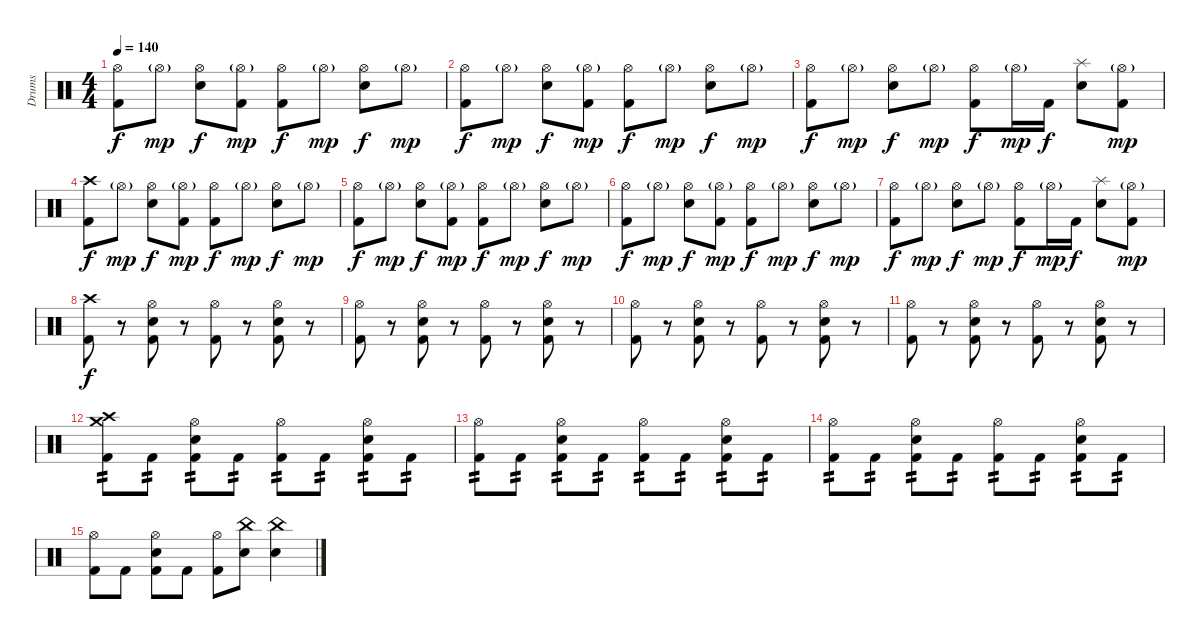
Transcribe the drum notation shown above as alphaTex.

\track ("Drums" "Drums") {instrument percussion}
\staff {score}
\articulation defaults
\ts (4 4)
\tempo 140
\clef neutral
\ks c
("Hi-Hat (open)" "Kick (hit) 2").8{dy f} "Hi-Hat (open)"{g}.8{dy mp} ("Hi-Hat (open)" "Electric Snare (hit)").8{dy f} ("Hi-Hat (open)"{g} "Kick (hit) 2").8{dy mp} ("Hi-Hat (open)" "Kick (hit) 2").8{dy f} "Hi-Hat (open)"{g}.8{dy mp} ("Hi-Hat (open)" "Electric Snare (hit)").8{dy f} "Hi-Hat (open)"{g}.8{dy mp} |
("Hi-Hat (open)" "Kick (hit) 2").8{dy f} "Hi-Hat (open)"{g}.8{dy mp} ("Hi-Hat (open)" "Electric Snare (hit)").8{dy f} ("Hi-Hat (open)"{g} "Kick (hit) 2").8{dy mp} ("Hi-Hat (open)" "Kick (hit) 2").8{dy f} "Hi-Hat (open)"{g}.8{dy mp} ("Hi-Hat (open)" "Electric Snare (hit)").8{dy f} "Hi-Hat (open)"{g}.8{dy mp} |
("Hi-Hat (open)" "Kick (hit) 2").8{dy f} "Hi-Hat (open)"{g}.8{dy mp} ("Hi-Hat (open)" "Electric Snare (hit)").8{dy f} "Hi-Hat (open)"{g}.8{dy mp} ("Hi-Hat (open)" "Kick (hit) 2").8{dy f} "Hi-Hat (open)"{g}.16{dy mp} "Kick (hit) 2".16{dy f} ("Splash (hit)" "Electric Snare (hit)").8 ("Hi-Hat (open)"{g} "Kick (hit) 2").8{dy mp} |
("Crash high (hit)" "Kick (hit) 2").8{dy f} "Hi-Hat (open)"{g}.8{dy mp} ("Hi-Hat (open)" "Electric Snare (hit)").8{dy f} ("Hi-Hat (open)"{g} "Kick (hit) 2").8{dy mp} ("Hi-Hat (open)" "Kick (hit) 2").8{dy f} "Hi-Hat (open)"{g}.8{dy mp} ("Hi-Hat (open)" "Electric Snare (hit)").8{dy f} "Hi-Hat (open)"{g}.8{dy mp} |
("Hi-Hat (open)" "Kick (hit) 2").8{dy f} "Hi-Hat (open)"{g}.8{dy mp} ("Hi-Hat (open)" "Electric Snare (hit)").8{dy f} ("Hi-Hat (open)"{g} "Kick (hit) 2").8{dy mp} ("Hi-Hat (open)" "Kick (hit) 2").8{dy f} "Hi-Hat (open)"{g}.8{dy mp} ("Hi-Hat (open)" "Electric Snare (hit)").8{dy f} "Hi-Hat (open)"{g}.8{dy mp} |
("Hi-Hat (open)" "Kick (hit) 2").8{dy f} "Hi-Hat (open)"{g}.8{dy mp} ("Hi-Hat (open)" "Electric Snare (hit)").8{dy f} ("Hi-Hat (open)"{g} "Kick (hit) 2").8{dy mp} ("Hi-Hat (open)" "Kick (hit) 2").8{dy f} "Hi-Hat (open)"{g}.8{dy mp} ("Hi-Hat (open)" "Electric Snare (hit)").8{dy f} "Hi-Hat (open)"{g}.8{dy mp} |
("Hi-Hat (open)" "Kick (hit) 2").8{dy f} "Hi-Hat (open)"{g}.8{dy mp} ("Hi-Hat (open)" "Electric Snare (hit)").8{dy f} "Hi-Hat (open)"{g}.8{dy mp} ("Hi-Hat (open)" "Kick (hit) 2").8{dy f} "Hi-Hat (open)"{g}.16{dy mp} "Kick (hit) 2".16{dy f} ("Splash (hit)" "Electric Snare (hit)").8 ("Hi-Hat (open)"{g} "Kick (hit) 2").8{dy mp} |
("Crash high (hit)" "Kick (hit) 2").8{dy f} r.8 ("Hi-Hat (open)" "Electric Snare (hit)" "Kick (hit) 2").8 r.8 ("Hi-Hat (open)" "Kick (hit) 2").8 r.8 ("Hi-Hat (open)" "Electric Snare (hit)" "Kick (hit) 2").8 r.8 |
("Hi-Hat (open)" "Kick (hit) 2").8 r.8 ("Hi-Hat (open)" "Electric Snare (hit)" "Kick (hit) 2").8 r.8 ("Hi-Hat (open)" "Kick (hit) 2").8 r.8 ("Hi-Hat (open)" "Electric Snare (hit)" "Kick (hit) 2").8 r.8 |
("Hi-Hat (open)" "Kick (hit) 2").8 r.8 ("Hi-Hat (open)" "Electric Snare (hit)" "Kick (hit) 2").8 r.8 ("Hi-Hat (open)" "Kick (hit) 2").8 r.8 ("Hi-Hat (open)" "Electric Snare (hit)" "Kick (hit) 2").8 r.8 |
("Hi-Hat (open)" "Kick (hit) 2").8 r.8 ("Hi-Hat (open)" "Electric Snare (hit)" "Kick (hit) 2").8 r.8 ("Hi-Hat (open)" "Kick (hit) 2").8 r.8 ("Hi-Hat (open)" "Electric Snare (hit)" "Kick (hit) 2").8 r.8 |
("Crash high (hit)" "Crash medium (hit)" "Kick (hit) 2").8{tp 2} "Kick (hit) 2".8{tp 2} ("Hi-Hat (open)" "Electric Snare (hit)" "Kick (hit) 2").8{tp 2} "Kick (hit) 2".8{tp 2} ("Hi-Hat (open)" "Kick (hit) 2").8{tp 2} "Kick (hit) 2".8{tp 2} ("Hi-Hat (open)" "Electric Snare (hit)" "Kick (hit) 2").8{tp 2} "Kick (hit) 2".8{tp 2} |
("Hi-Hat (open)" "Kick (hit) 2").8{tp 2} "Kick (hit) 2".8{tp 2} ("Hi-Hat (open)" "Electric Snare (hit)" "Kick (hit) 2").8{tp 2} "Kick (hit) 2".8{tp 2} ("Hi-Hat (open)" "Kick (hit) 2").8{tp 2} "Kick (hit) 2".8{tp 2} ("Hi-Hat (open)" "Electric Snare (hit)" "Kick (hit) 2").8{tp 2} "Kick (hit) 2".8{tp 2} |
("Hi-Hat (open)" "Kick (hit) 2").8{tp 2} "Kick (hit) 2".8{tp 2} ("Hi-Hat (open)" "Electric Snare (hit)" "Kick (hit) 2").8{tp 2} "Kick (hit) 2".8{tp 2} ("Hi-Hat (open)" "Kick (hit) 2").8{tp 2} "Kick (hit) 2".8{tp 2} ("Hi-Hat (open)" "Electric Snare (hit)" "Kick (hit) 2").8{tp 2} "Kick (hit) 2".8{tp 2} |
("Hi-Hat (open)" "Kick (hit) 2").8 "Kick (hit) 2".8 ("Hi-Hat (open)" "Electric Snare (hit)" "Kick (hit) 2").8 "Kick (hit) 2".8 ("Hi-Hat (open)" "Kick (hit) 2").8 ("China (hit)" "Electric Snare (hit)").8 ("China (hit)" "Electric Snare (hit)").4
